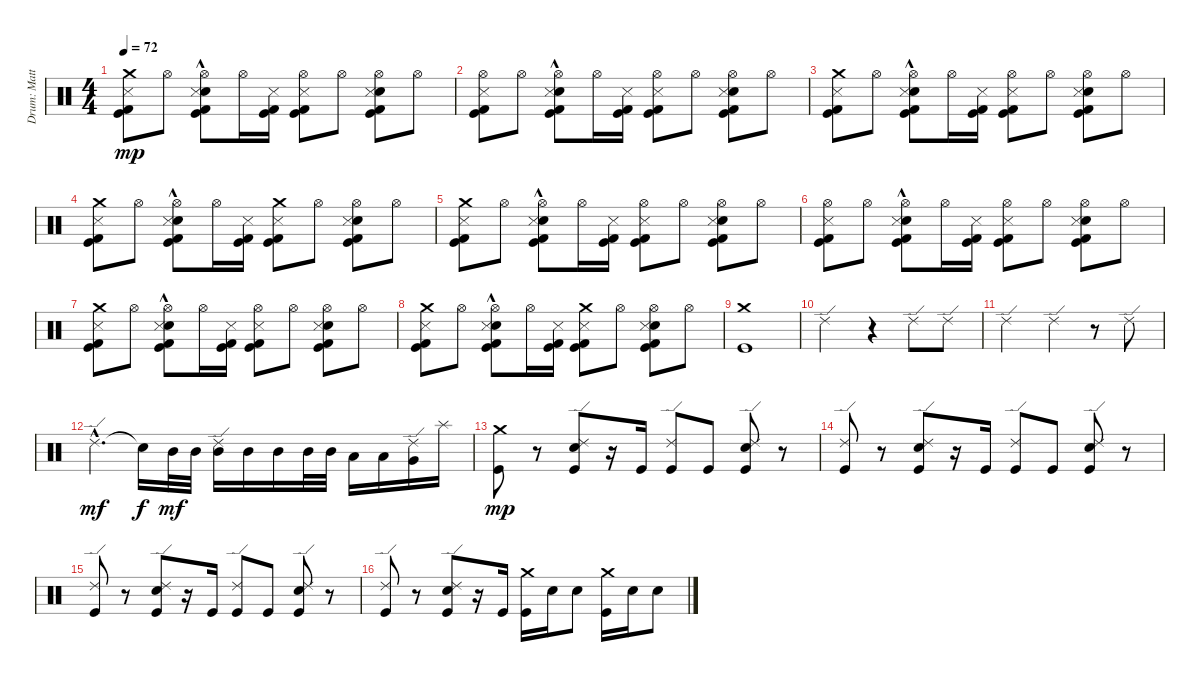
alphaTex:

\track ("Drum: Matt" "Drum: Matt") {instrument percussion}
\staff {score}
\articulation defaults
\ts (4 4)
\tempo 72
\clef neutral
\ks c
("Crash medium (hit)" "Metronome (hit)" "Kick (hit)" "Kick (hit) 2").8{dy mp} "Hi-Hat (open)".8 ("Snare (hit) 2" "Hi-Hat (open)" "Metronome (hit)"{hac} "Kick (hit)"{hac} "Kick (hit) 2"{hac}).8 "Hi-Hat (open)".16 ("Metronome (hit)" "Kick (hit)" "Kick (hit) 2").16 ("Hi-Hat (open)" "Metronome (hit)" "Kick (hit)" "Kick (hit) 2").8 "Hi-Hat (open)".8 ("Snare (hit) 2" "Hi-Hat (open)" "Metronome (hit)" "Kick (hit)" "Kick (hit) 2").8 "Hi-Hat (open)".8 |
("Hi-Hat (open)" "Metronome (hit)" "Kick (hit)" "Kick (hit) 2").8 "Hi-Hat (open)".8 ("Snare (hit) 2" "Hi-Hat (open)" "Metronome (hit)"{hac} "Kick (hit)"{hac} "Kick (hit) 2"{hac}).8 "Hi-Hat (open)".16 ("Metronome (hit)" "Kick (hit)" "Kick (hit) 2").16 ("Hi-Hat (open)" "Metronome (hit)" "Kick (hit)" "Kick (hit) 2").8 "Hi-Hat (open)".8 ("Snare (hit) 2" "Hi-Hat (open)" "Metronome (hit)" "Kick (hit)" "Kick (hit) 2").8 "Hi-Hat (open)".8 |
("Crash medium (hit)" "Metronome (hit)" "Kick (hit)" "Kick (hit) 2").8 "Hi-Hat (open)".8 ("Snare (hit) 2" "Hi-Hat (open)" "Metronome (hit)"{hac} "Kick (hit)"{hac} "Kick (hit) 2"{hac}).8 "Hi-Hat (open)".16 ("Metronome (hit)" "Kick (hit)" "Kick (hit) 2").16 ("Hi-Hat (open)" "Metronome (hit)" "Kick (hit)" "Kick (hit) 2").8 "Hi-Hat (open)".8 ("Snare (hit) 2" "Hi-Hat (open)" "Metronome (hit)" "Kick (hit)" "Kick (hit) 2").8 "Hi-Hat (open)".8 |
("Crash medium (hit)" "Metronome (hit)" "Kick (hit)" "Kick (hit) 2").8 "Hi-Hat (open)".8 ("Snare (hit) 2" "Hi-Hat (open)" "Metronome (hit)"{hac} "Kick (hit)"{hac} "Kick (hit) 2"{hac}).8 "Hi-Hat (open)".16 ("Metronome (hit)" "Kick (hit)" "Kick (hit) 2").16 ("Crash medium (hit)" "Metronome (hit)" "Kick (hit)" "Kick (hit) 2").8 "Hi-Hat (open)".8 ("Snare (hit) 2" "Hi-Hat (open)" "Metronome (hit)" "Kick (hit)" "Kick (hit) 2").8 "Hi-Hat (open)".8 |
("Crash medium (hit)" "Metronome (hit)" "Kick (hit)" "Kick (hit) 2").8 "Hi-Hat (open)".8 ("Snare (hit) 2" "Hi-Hat (open)" "Metronome (hit)"{hac} "Kick (hit)"{hac} "Kick (hit) 2"{hac}).8 "Hi-Hat (open)".16 ("Metronome (hit)" "Kick (hit)" "Kick (hit) 2").16 ("Hi-Hat (open)" "Metronome (hit)" "Kick (hit)" "Kick (hit) 2").8 "Hi-Hat (open)".8 ("Snare (hit) 2" "Hi-Hat (open)" "Metronome (hit)" "Kick (hit)" "Kick (hit) 2").8 "Hi-Hat (open)".8 |
("Hi-Hat (open)" "Metronome (hit)" "Kick (hit)" "Kick (hit) 2").8 "Hi-Hat (open)".8 ("Snare (hit) 2" "Hi-Hat (open)" "Metronome (hit)"{hac} "Kick (hit)"{hac} "Kick (hit) 2"{hac}).8 "Hi-Hat (open)".16 ("Metronome (hit)" "Kick (hit)" "Kick (hit) 2").16 ("Hi-Hat (open)" "Metronome (hit)" "Kick (hit)" "Kick (hit) 2").8 "Hi-Hat (open)".8 ("Snare (hit) 2" "Hi-Hat (open)" "Metronome (hit)" "Kick (hit)" "Kick (hit) 2").8 "Hi-Hat (open)".8 |
("Crash medium (hit)" "Metronome (hit)" "Kick (hit)" "Kick (hit) 2").8 "Hi-Hat (open)".8 ("Snare (hit) 2" "Hi-Hat (open)" "Metronome (hit)"{hac} "Kick (hit)"{hac} "Kick (hit) 2"{hac}).8 "Hi-Hat (open)".16 ("Metronome (hit)" "Kick (hit)" "Kick (hit) 2").16 ("Hi-Hat (open)" "Metronome (hit)" "Kick (hit)" "Kick (hit) 2").8 "Hi-Hat (open)".8 ("Snare (hit) 2" "Hi-Hat (open)" "Metronome (hit)" "Kick (hit)" "Kick (hit) 2").8 "Hi-Hat (open)".8 |
("Crash medium (hit)" "Metronome (hit)" "Kick (hit)" "Kick (hit) 2").8 "Hi-Hat (open)".8 ("Snare (hit) 2" "Hi-Hat (open)" "Metronome (hit)"{hac} "Kick (hit)"{hac} "Kick (hit) 2"{hac}).8 "Hi-Hat (open)".16 ("Metronome (hit)" "Kick (hit)" "Kick (hit) 2").16 ("Crash medium (hit)" "Metronome (hit)" "Kick (hit)" "Kick (hit) 2").8 "Hi-Hat (open)".8 ("Snare (hit) 2" "Hi-Hat (open)" "Metronome (hit)" "Kick (hit)" "Kick (hit) 2").8 "Hi-Hat (open)".8 |
("Kick (hit)" "Crash medium (hit)").1 |
"Ride (edge) 2".2 r.4 "Ride (edge) 2".8 "Ride (edge) 2".8 |
"Ride (edge) 2".2 "Ride (edge) 2".4 r.8 "Ride (edge) 2".8 |
"Ride (edge) 2"{hac}.4{d dy mf} "Snare (hit)"{t}.16{dy f} "Mid Tom (hit)".32{dy mf} "Mid Tom (hit)".32 ("Mid Tom (hit)" "Ride (edge) 2").16 "Mid Tom (hit)".16 "Mid Tom (hit)".16 "Mid Tom (hit)".32 "Mid Tom (hit)".32 "Low Tom (hit)".16 "Low Tom (hit)".16 ("Very Low Tom (hit)" "Ride (edge) 2").16 "Splash (hit)".16 |
("Kick (hit)" "Crash medium (hit)").8{dy mp} r.8 ("Kick (hit)" "Snare (hit) 2" "Ride (edge) 2").8 r.16 "Kick (hit)".16 ("Kick (hit)" "Ride (edge) 2").8 "Kick (hit)".8 ("Kick (hit)" "Snare (hit) 2" "Ride (edge) 2").8 r.8 |
("Kick (hit)" "Ride (edge) 2").8 r.8 ("Kick (hit)" "Snare (hit) 2" "Ride (edge) 2").8 r.16 "Kick (hit)".16 ("Kick (hit)" "Ride (edge) 2").8 "Kick (hit)".8 ("Kick (hit)" "Snare (hit) 2" "Ride (edge) 2").8 r.8 |
("Kick (hit)" "Ride (edge) 2").8 r.8 ("Kick (hit)" "Snare (hit) 2" "Ride (edge) 2").8 r.16 "Kick (hit)".16 ("Kick (hit)" "Ride (edge) 2").8 "Kick (hit)".8 ("Kick (hit)" "Snare (hit) 2" "Ride (edge) 2").8 r.8 |
("Kick (hit)" "Ride (edge) 2").8 r.8 ("Kick (hit)" "Snare (hit) 2" "Ride (edge) 2").8 r.16 "Kick (hit)".16 ("Kick (hit)" "Crash medium (hit)").16 "Snare (hit) 2".16 "Snare (hit) 2".8 ("Kick (hit)" "Crash medium (hit)").16 "Snare (hit) 2".16 "Snare (hit) 2".8
